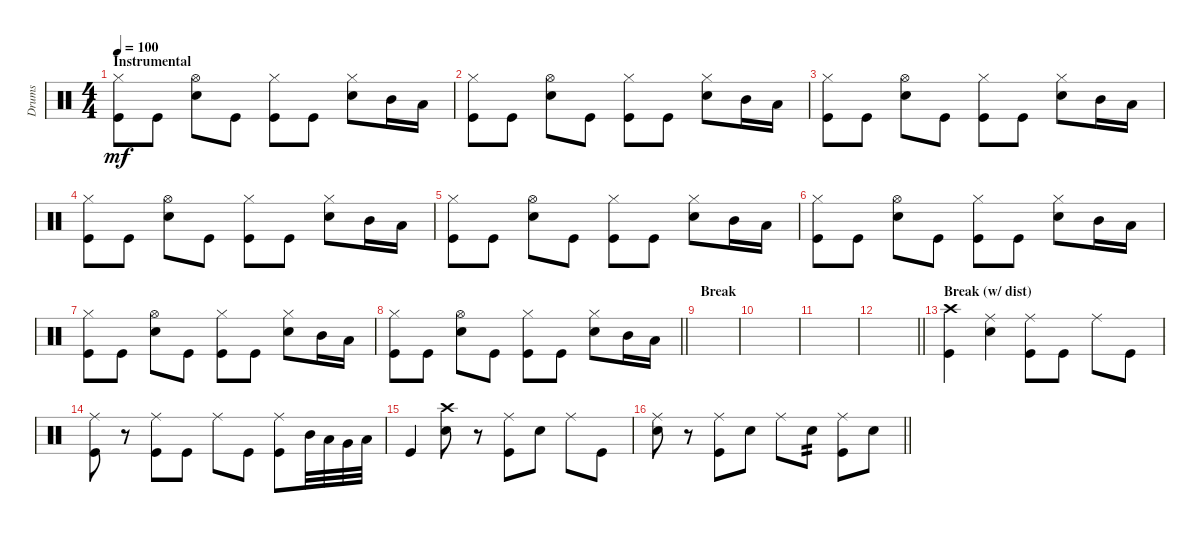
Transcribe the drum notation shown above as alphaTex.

\track ("Drums" "Drums") {instrument percussion}
\staff {score}
\articulation defaults
\ts (4 4)
\section ("" "Instrumental")
\tempo 100
\clef neutral
\ks c
("Kick (hit)" "Hi-Hat (closed)").8{dy mf} "Kick (hit)".8 ("Electric Snare (hit)" "Hi-Hat (open)").8 "Kick (hit)".8 ("Kick (hit)" "Hi-Hat (closed)").8 "Kick (hit)".8 ("Electric Snare (hit)" "Hi-Hat (closed)").8 "Mid Tom (hit)".16 "Low Tom (hit)".16 |
("Kick (hit)" "Hi-Hat (closed)").8 "Kick (hit)".8 ("Electric Snare (hit)" "Hi-Hat (open)").8 "Kick (hit)".8 ("Kick (hit)" "Hi-Hat (closed)").8 "Kick (hit)".8 ("Electric Snare (hit)" "Hi-Hat (closed)").8 "Mid Tom (hit)".16 "Low Tom (hit)".16 |
("Kick (hit)" "Hi-Hat (closed)").8 "Kick (hit)".8 ("Electric Snare (hit)" "Hi-Hat (open)").8 "Kick (hit)".8 ("Kick (hit)" "Hi-Hat (closed)").8 "Kick (hit)".8 ("Electric Snare (hit)" "Hi-Hat (closed)").8 "Mid Tom (hit)".16 "Low Tom (hit)".16 |
("Kick (hit)" "Hi-Hat (closed)").8 "Kick (hit)".8 ("Electric Snare (hit)" "Hi-Hat (open)").8 "Kick (hit)".8 ("Kick (hit)" "Hi-Hat (closed)").8 "Kick (hit)".8 ("Electric Snare (hit)" "Hi-Hat (closed)").8 "Mid Tom (hit)".16 "Low Tom (hit)".16 |
("Kick (hit)" "Hi-Hat (closed)").8 "Kick (hit)".8 ("Electric Snare (hit)" "Hi-Hat (open)").8 "Kick (hit)".8 ("Kick (hit)" "Hi-Hat (closed)").8 "Kick (hit)".8 ("Electric Snare (hit)" "Hi-Hat (closed)").8 "Mid Tom (hit)".16 "Low Tom (hit)".16 |
("Kick (hit)" "Hi-Hat (closed)").8 "Kick (hit)".8 ("Electric Snare (hit)" "Hi-Hat (open)").8 "Kick (hit)".8 ("Kick (hit)" "Hi-Hat (closed)").8 "Kick (hit)".8 ("Electric Snare (hit)" "Hi-Hat (closed)").8 "Mid Tom (hit)".16 "Low Tom (hit)".16 |
("Kick (hit)" "Hi-Hat (closed)").8 "Kick (hit)".8 ("Electric Snare (hit)" "Hi-Hat (open)").8 "Kick (hit)".8 ("Kick (hit)" "Hi-Hat (closed)").8 "Kick (hit)".8 ("Electric Snare (hit)" "Hi-Hat (closed)").8 "Mid Tom (hit)".16 "Low Tom (hit)".16 |
\barLineRight lightlight
("Kick (hit)" "Hi-Hat (closed)").8 "Kick (hit)".8 ("Electric Snare (hit)" "Hi-Hat (open)").8 "Kick (hit)".8 ("Kick (hit)" "Hi-Hat (closed)").8 "Kick (hit)".8 ("Electric Snare (hit)" "Hi-Hat (closed)").8 "Mid Tom (hit)".16 "Low Tom (hit)".16 |
\section ("" "Break")
|
|
|
\barLineRight lightlight
|
\section ("" "Break (w/ dist)")
("Crash high (hit)" "Kick (hit)").4 ("Ride (middle)" "Snare (hit) 2").4 ("Ride (middle)" "Kick (hit)").8 "Kick (hit)".8 "Ride (middle)".8 "Kick (hit)".8 |
("Ride (middle)" "Kick (hit)").8 r.8 ("Ride (middle)" "Kick (hit)").8 "Kick (hit)".8 "Ride (middle)".8 "Kick (hit)".8 ("Ride (middle)" "Kick (hit)").8 "Mid Tom (hit)".32 "Low Tom (hit)".32 "Very Low Tom (hit)".32 "Low Floor Tom (hit)".32 |
"Kick (hit)".4 ("Crash high (hit)" "Snare (hit) 2").8 r.8 ("Ride (middle)" "Kick (hit)").8 "Snare (hit) 2".8 "Ride (middle)".8 "Kick (hit)".8 |
\barLineRight lightlight
("Ride (middle)" "Snare (hit) 2").8 r.8 ("Ride (middle)" "Kick (hit)").8 "Snare (hit) 2".8 "Ride (middle)".8 "Snare (hit) 2".8{tp 2} ("Ride (middle)" "Kick (hit)").8 "Snare (hit) 2".8
